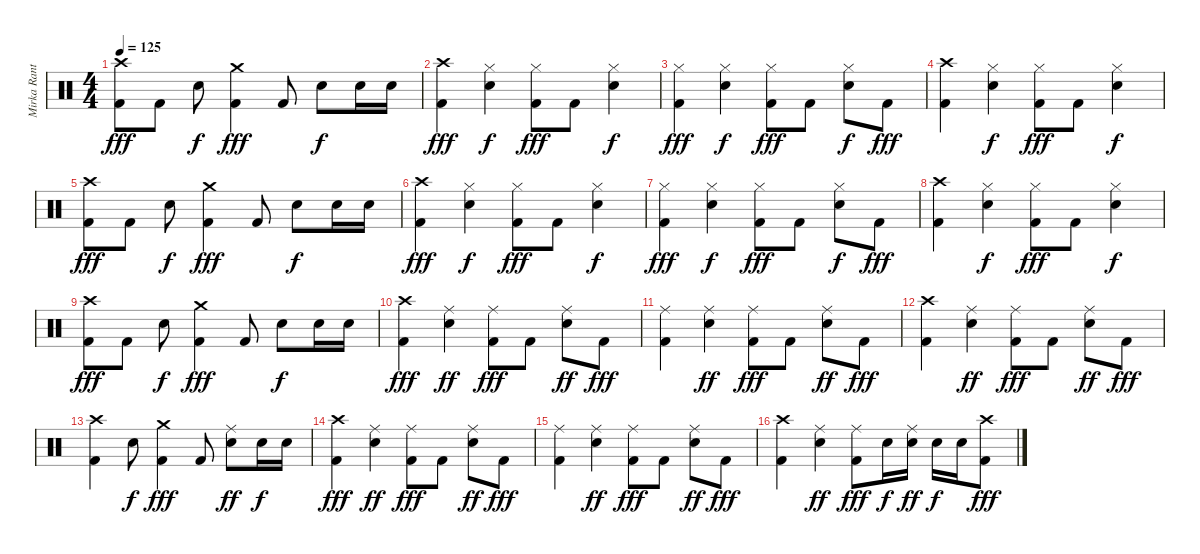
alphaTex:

\track ("Mirka Rantanen (Thunderstone)" "Mirka Rant") {instrument percussion}
\staff {score}
\articulation defaults
\ts (4 4)
\tempo 125
\clef neutral
\ks c
("Crash high (hit)" "Kick (hit) 2").8{dy fff} "Kick (hit) 2".8 "Electric Snare (hit)".8{dy f} ("Crash medium (hit)" "Kick (hit) 2").4{dy fff} "Kick (hit) 2".8 "Electric Snare (hit)".8{dy f} "Electric Snare (hit)".16 "Electric Snare (hit)".16 |
("Crash high (hit)" "Kick (hit) 2").4{dy fff} ("Hi-Hat (closed)" "Electric Snare (hit)").4{dy f} ("Hi-Hat (closed)" "Kick (hit) 2").8{dy fff} "Kick (hit) 2".8 ("Hi-Hat (closed)" "Electric Snare (hit)").4{dy f} |
("Hi-Hat (closed)" "Kick (hit) 2").4{dy fff} ("Hi-Hat (closed)" "Electric Snare (hit)").4{dy f} ("Hi-Hat (closed)" "Kick (hit) 2").8{dy fff} "Kick (hit) 2".8 ("Hi-Hat (closed)" "Electric Snare (hit)").8{dy f} "Kick (hit) 2".8{dy fff} |
("Crash high (hit)" "Kick (hit) 2").4 ("Hi-Hat (closed)" "Electric Snare (hit)").4{dy f} ("Hi-Hat (closed)" "Kick (hit) 2").8{dy fff} "Kick (hit) 2".8 ("Hi-Hat (closed)" "Electric Snare (hit)").4{dy f} |
("Crash high (hit)" "Kick (hit) 2").8{dy fff} "Kick (hit) 2".8 "Electric Snare (hit)".8{dy f} ("Crash medium (hit)" "Kick (hit) 2").4{dy fff} "Kick (hit) 2".8 "Electric Snare (hit)".8{dy f} "Electric Snare (hit)".16 "Electric Snare (hit)".16 |
("Crash high (hit)" "Kick (hit) 2").4{dy fff} ("Hi-Hat (closed)" "Electric Snare (hit)").4{dy f} ("Hi-Hat (closed)" "Kick (hit) 2").8{dy fff} "Kick (hit) 2".8 ("Hi-Hat (closed)" "Electric Snare (hit)").4{dy f} |
("Hi-Hat (closed)" "Kick (hit) 2").4{dy fff} ("Hi-Hat (closed)" "Electric Snare (hit)").4{dy f} ("Hi-Hat (closed)" "Kick (hit) 2").8{dy fff} "Kick (hit) 2".8 ("Hi-Hat (closed)" "Electric Snare (hit)").8{dy f} "Kick (hit) 2".8{dy fff} |
("Crash high (hit)" "Kick (hit) 2").4 ("Hi-Hat (closed)" "Electric Snare (hit)").4{dy f} ("Hi-Hat (closed)" "Kick (hit) 2").8{dy fff} "Kick (hit) 2".8 ("Hi-Hat (closed)" "Electric Snare (hit)").4{dy f} |
("Crash high (hit)" "Kick (hit) 2").8{dy fff} "Kick (hit) 2".8 "Electric Snare (hit)".8{dy f} ("Crash medium (hit)" "Kick (hit) 2").4{dy fff} "Kick (hit) 2".8 "Electric Snare (hit)".8{dy f} "Electric Snare (hit)".16 "Electric Snare (hit)".16 |
("Crash high (hit)" "Kick (hit) 2").4{dy fff} ("Ride (middle)" "Electric Snare (hit)").4{dy ff} ("Ride (middle)" "Kick (hit) 2").8{dy fff} "Kick (hit) 2".8 ("Ride (middle)" "Electric Snare (hit)").8{dy ff} "Kick (hit) 2".8{dy fff} |
("Ride (middle)" "Kick (hit) 2").4 ("Ride (middle)" "Electric Snare (hit)").4{dy ff} ("Ride (middle)" "Kick (hit) 2").8{dy fff} "Kick (hit) 2".8 ("Ride (middle)" "Electric Snare (hit)").8{dy ff} "Kick (hit) 2".8{dy fff} |
("Crash high (hit)" "Kick (hit) 2").4 ("Ride (middle)" "Electric Snare (hit)").4{dy ff} ("Ride (middle)" "Kick (hit) 2").8{dy fff} "Kick (hit) 2".8 ("Ride (middle)" "Electric Snare (hit)").8{dy ff} "Kick (hit) 2".8{dy fff} |
("Crash high (hit)" "Kick (hit) 2").4 "Electric Snare (hit)".8{dy f} ("Crash medium (hit)" "Kick (hit) 2").4{dy fff} "Kick (hit) 2".8 ("Ride (middle)" "Electric Snare (hit)").8{dy ff} "Electric Snare (hit)".16{dy f} "Electric Snare (hit)".16 |
("Crash high (hit)" "Kick (hit) 2").4{dy fff} ("Ride (middle)" "Electric Snare (hit)").4{dy ff} ("Ride (middle)" "Kick (hit) 2").8{dy fff} "Kick (hit) 2".8 ("Ride (middle)" "Electric Snare (hit)").8{dy ff} "Kick (hit) 2".8{dy fff} |
("Ride (middle)" "Kick (hit) 2").4 ("Ride (middle)" "Electric Snare (hit)").4{dy ff} ("Ride (middle)" "Kick (hit) 2").8{dy fff} "Kick (hit) 2".8 ("Ride (middle)" "Electric Snare (hit)").8{dy ff} "Kick (hit) 2".8{dy fff} |
("Crash high (hit)" "Kick (hit) 2").4 ("Ride (middle)" "Electric Snare (hit)").4{dy ff} ("Ride (middle)" "Kick (hit) 2").8{dy fff} "Electric Snare (hit)".16{dy f} ("Ride (middle)" "Electric Snare (hit)").16{dy ff} "Electric Snare (hit)".16{dy f} "Electric Snare (hit)".16 ("Crash high (hit)" "Kick (hit) 2").8{dy fff}
